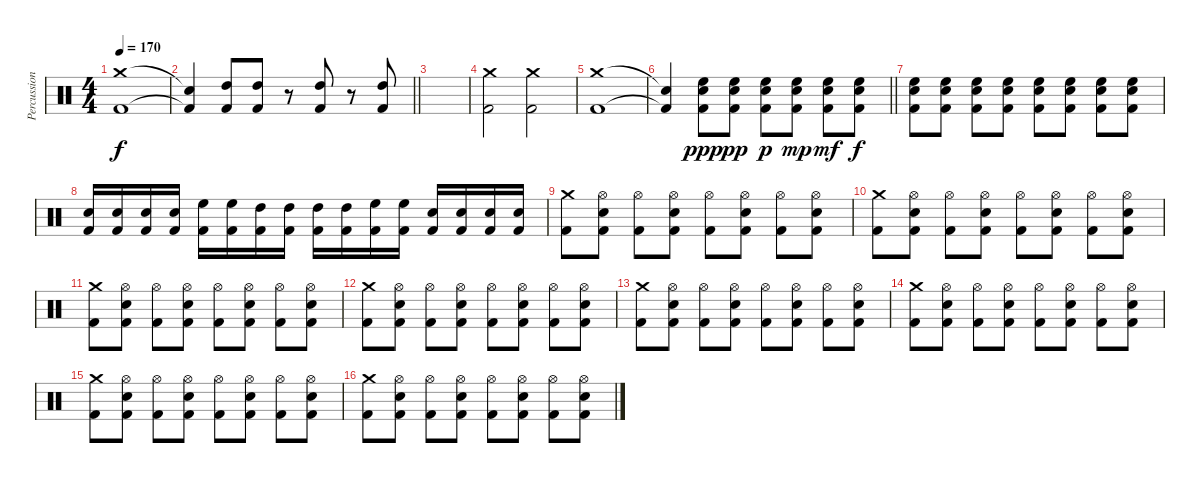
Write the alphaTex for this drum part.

\track ("Percussion" "Percussion") {instrument percussion}
\staff {score}
\articulation defaults
\ts (4 4)
\tempo 170
\clef neutral
\ks c
("Crash medium (hit)" "Kick (hit) 2").1{dy f} |
\barLineRight lightlight
("Snare (hit)"{t} "Kick (hit) 2"{t}).4 ("High Tom (hit)" "Kick (hit) 2").8 ("High Tom (hit)" "Kick (hit) 2").8 r.8 ("High Tom (hit)" "Kick (hit) 2").8 r.8 ("High Tom (hit)" "Kick (hit) 2").8 |
|
("Crash medium (hit)" "Kick (hit) 2").2 ("Crash medium (hit)" "Kick (hit) 2").2 |
("Crash medium (hit)" "Kick (hit) 2").1 |
\barLineRight lightlight
("Snare (hit)"{t} "Kick (hit) 2"{t}).4 ("High Floor Tom (hit)" "Snare (hit) 2" "Kick (hit) 2").8{dy ppp} ("High Floor Tom (hit)" "Snare (hit) 2" "Kick (hit) 2").8{dy pp} ("High Floor Tom (hit)" "Snare (hit) 2" "Kick (hit) 2").8{dy p} ("High Floor Tom (hit)" "Snare (hit) 2" "Kick (hit) 2").8{dy mp} ("High Floor Tom (hit)" "Snare (hit) 2" "Kick (hit) 2").8{dy mf} ("High Floor Tom (hit)" "Snare (hit) 2" "Kick (hit) 2").8{dy f} |
("High Floor Tom (hit)" "Snare (hit) 2" "Kick (hit) 2").8 ("High Floor Tom (hit)" "Snare (hit) 2" "Kick (hit) 2").8 ("High Floor Tom (hit)" "Snare (hit) 2" "Kick (hit) 2").8 ("High Floor Tom (hit)" "Snare (hit) 2" "Kick (hit) 2").8 ("High Floor Tom (hit)" "Snare (hit) 2" "Kick (hit) 2").8 ("High Floor Tom (hit)" "Snare (hit) 2" "Kick (hit) 2").8 ("High Floor Tom (hit)" "Snare (hit) 2" "Kick (hit) 2").8 ("High Floor Tom (hit)" "Snare (hit) 2" "Kick (hit) 2").8 |
("Electric Snare (hit)" "Kick (hit) 2").16 ("Electric Snare (hit)" "Kick (hit) 2").16 ("Electric Snare (hit)" "Kick (hit) 2").16 ("Electric Snare (hit)" "Kick (hit) 2").16 ("High Floor Tom (hit)" "Kick (hit) 2").16 ("High Floor Tom (hit)" "Kick (hit) 2").16 ("High Tom (hit)" "Kick (hit) 2").16 ("High Tom (hit)" "Kick (hit) 2").16 ("High Tom (hit)" "Kick (hit) 2").16 ("High Tom (hit)" "Kick (hit) 2").16 ("High Floor Tom (hit)" "Kick (hit) 2").16 ("High Floor Tom (hit)" "Kick (hit) 2").16 ("Electric Snare (hit)" "Kick (hit) 2").16 ("Electric Snare (hit)" "Kick (hit) 2").16 ("Electric Snare (hit)" "Kick (hit) 2").16 ("Electric Snare (hit)" "Kick (hit) 2").16 |
("Crash medium (hit)" "Kick (hit) 2").8 ("Hi-Hat (open)" "Snare (hit) 2" "Kick (hit) 2").8 ("Hi-Hat (open)" "Kick (hit) 2").8 ("Hi-Hat (open)" "Snare (hit) 2" "Kick (hit) 2").8 ("Hi-Hat (open)" "Kick (hit) 2").8 ("Hi-Hat (open)" "Snare (hit) 2" "Kick (hit) 2").8 ("Hi-Hat (open)" "Kick (hit) 2").8 ("Hi-Hat (open)" "Snare (hit) 2" "Kick (hit) 2").8 |
("Crash medium (hit)" "Kick (hit) 2").8 ("Hi-Hat (open)" "Snare (hit) 2" "Kick (hit) 2").8 ("Hi-Hat (open)" "Kick (hit) 2").8 ("Hi-Hat (open)" "Snare (hit) 2" "Kick (hit) 2").8 ("Hi-Hat (open)" "Kick (hit) 2").8 ("Hi-Hat (open)" "Snare (hit) 2" "Kick (hit) 2").8 ("Hi-Hat (open)" "Kick (hit) 2").8 ("Hi-Hat (open)" "Snare (hit) 2" "Kick (hit) 2").8 |
("Crash medium (hit)" "Kick (hit) 2").8 ("Hi-Hat (open)" "Snare (hit) 2" "Kick (hit) 2").8 ("Hi-Hat (open)" "Kick (hit) 2").8 ("Hi-Hat (open)" "Snare (hit) 2" "Kick (hit) 2").8 ("Hi-Hat (open)" "Kick (hit) 2").8 ("Hi-Hat (open)" "Snare (hit) 2" "Kick (hit) 2").8 ("Hi-Hat (open)" "Kick (hit) 2").8 ("Hi-Hat (open)" "Snare (hit) 2" "Kick (hit) 2").8 |
("Crash medium (hit)" "Kick (hit) 2").8 ("Hi-Hat (open)" "Snare (hit) 2" "Kick (hit) 2").8 ("Hi-Hat (open)" "Kick (hit) 2").8 ("Hi-Hat (open)" "Snare (hit) 2" "Kick (hit) 2").8 ("Hi-Hat (open)" "Kick (hit) 2").8 ("Hi-Hat (open)" "Snare (hit) 2" "Kick (hit) 2").8 ("Hi-Hat (open)" "Kick (hit) 2").8 ("Hi-Hat (open)" "Snare (hit) 2" "Kick (hit) 2").8 |
("Crash medium (hit)" "Kick (hit) 2").8 ("Hi-Hat (open)" "Snare (hit) 2" "Kick (hit) 2").8 ("Hi-Hat (open)" "Kick (hit) 2").8 ("Hi-Hat (open)" "Snare (hit) 2" "Kick (hit) 2").8 ("Hi-Hat (open)" "Kick (hit) 2").8 ("Hi-Hat (open)" "Snare (hit) 2" "Kick (hit) 2").8 ("Hi-Hat (open)" "Kick (hit) 2").8 ("Hi-Hat (open)" "Snare (hit) 2" "Kick (hit) 2").8 |
("Crash medium (hit)" "Kick (hit) 2").8 ("Hi-Hat (open)" "Snare (hit) 2" "Kick (hit) 2").8 ("Hi-Hat (open)" "Kick (hit) 2").8 ("Hi-Hat (open)" "Snare (hit) 2" "Kick (hit) 2").8 ("Hi-Hat (open)" "Kick (hit) 2").8 ("Hi-Hat (open)" "Snare (hit) 2" "Kick (hit) 2").8 ("Hi-Hat (open)" "Kick (hit) 2").8 ("Hi-Hat (open)" "Snare (hit) 2" "Kick (hit) 2").8 |
("Crash medium (hit)" "Kick (hit) 2").8 ("Hi-Hat (open)" "Snare (hit) 2" "Kick (hit) 2").8 ("Hi-Hat (open)" "Kick (hit) 2").8 ("Hi-Hat (open)" "Snare (hit) 2" "Kick (hit) 2").8 ("Hi-Hat (open)" "Kick (hit) 2").8 ("Hi-Hat (open)" "Snare (hit) 2" "Kick (hit) 2").8 ("Hi-Hat (open)" "Kick (hit) 2").8 ("Hi-Hat (open)" "Snare (hit) 2" "Kick (hit) 2").8 |
("Crash medium (hit)" "Kick (hit) 2").8 ("Hi-Hat (open)" "Snare (hit) 2" "Kick (hit) 2").8 ("Hi-Hat (open)" "Kick (hit) 2").8 ("Hi-Hat (open)" "Snare (hit) 2" "Kick (hit) 2").8 ("Hi-Hat (open)" "Kick (hit) 2").8 ("Hi-Hat (open)" "Snare (hit) 2" "Kick (hit) 2").8 ("Hi-Hat (open)" "Kick (hit) 2").8 ("Hi-Hat (open)" "Snare (hit) 2" "Kick (hit) 2").8
